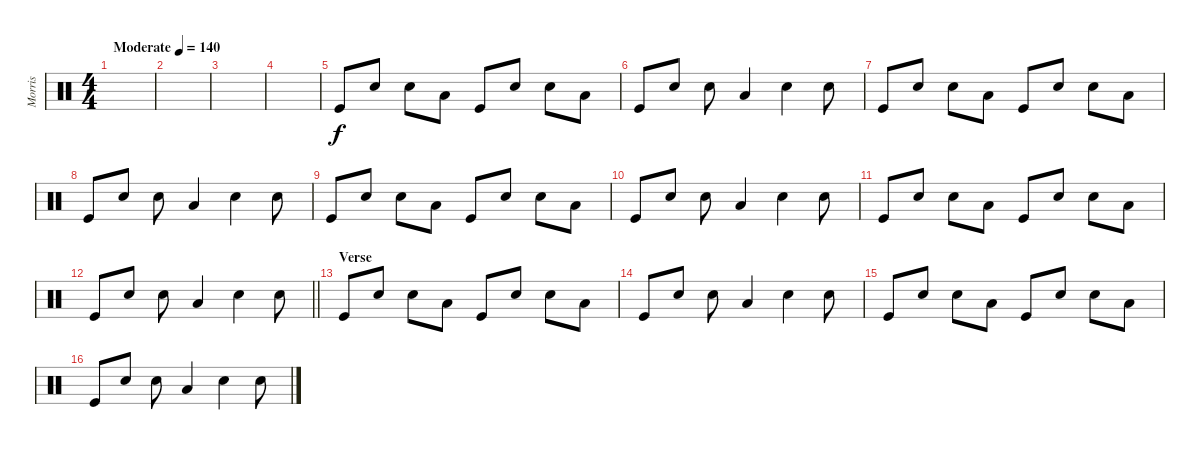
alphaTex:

\track ("Morris" "Morris") {instrument percussion}
\staff {score}
\articulation defaults
\ts (4 4)
\tempo (140 "Moderate")
\clef neutral
\ks c
|
|
|
|
"Kick (hit)".8 "Electric Snare (hit)".8 "Electric Snare (hit)".8 "Low Tom (hit)".8 "Kick (hit)".8 "Electric Snare (hit)".8 "Electric Snare (hit)".8 "Low Tom (hit)".8 |
"Kick (hit)".8 "Electric Snare (hit)".8 "Electric Snare (hit)".8 "Low Tom (hit)".4 "Electric Snare (hit)".4 "Electric Snare (hit)".8 |
"Kick (hit)".8 "Electric Snare (hit)".8 "Electric Snare (hit)".8 "Low Tom (hit)".8 "Kick (hit)".8 "Electric Snare (hit)".8 "Electric Snare (hit)".8 "Low Tom (hit)".8 |
"Kick (hit)".8 "Electric Snare (hit)".8 "Electric Snare (hit)".8 "Low Tom (hit)".4 "Electric Snare (hit)".4 "Electric Snare (hit)".8 |
"Kick (hit)".8 "Electric Snare (hit)".8 "Electric Snare (hit)".8 "Low Tom (hit)".8 "Kick (hit)".8 "Electric Snare (hit)".8 "Electric Snare (hit)".8 "Low Tom (hit)".8 |
"Kick (hit)".8 "Electric Snare (hit)".8 "Electric Snare (hit)".8 "Low Tom (hit)".4 "Electric Snare (hit)".4 "Electric Snare (hit)".8 |
"Kick (hit)".8 "Electric Snare (hit)".8 "Electric Snare (hit)".8 "Low Tom (hit)".8 "Kick (hit)".8 "Electric Snare (hit)".8 "Electric Snare (hit)".8 "Low Tom (hit)".8 |
\barLineRight lightlight "Kick (hit)".8 "Electric Snare (hit)".8 "Electric Snare (hit)".8 "Low Tom (hit)".4 "Electric Snare (hit)".4 "Electric Snare (hit)".8
|
\section ("" "Verse")
"Kick (hit)".8 "Electric Snare (hit)".8 "Electric Snare (hit)".8 "Low Tom (hit)".8 "Kick (hit)".8 "Electric Snare (hit)".8 "Electric Snare (hit)".8 "Low Tom (hit)".8 |
"Kick (hit)".8 "Electric Snare (hit)".8 "Electric Snare (hit)".8 "Low Tom (hit)".4 "Electric Snare (hit)".4 "Electric Snare (hit)".8 |
"Kick (hit)".8 "Electric Snare (hit)".8 "Electric Snare (hit)".8 "Low Tom (hit)".8 "Kick (hit)".8 "Electric Snare (hit)".8 "Electric Snare (hit)".8 "Low Tom (hit)".8 |
"Kick (hit)".8 "Electric Snare (hit)".8 "Electric Snare (hit)".8 "Low Tom (hit)".4 "Electric Snare (hit)".4 "Electric Snare (hit)".8
